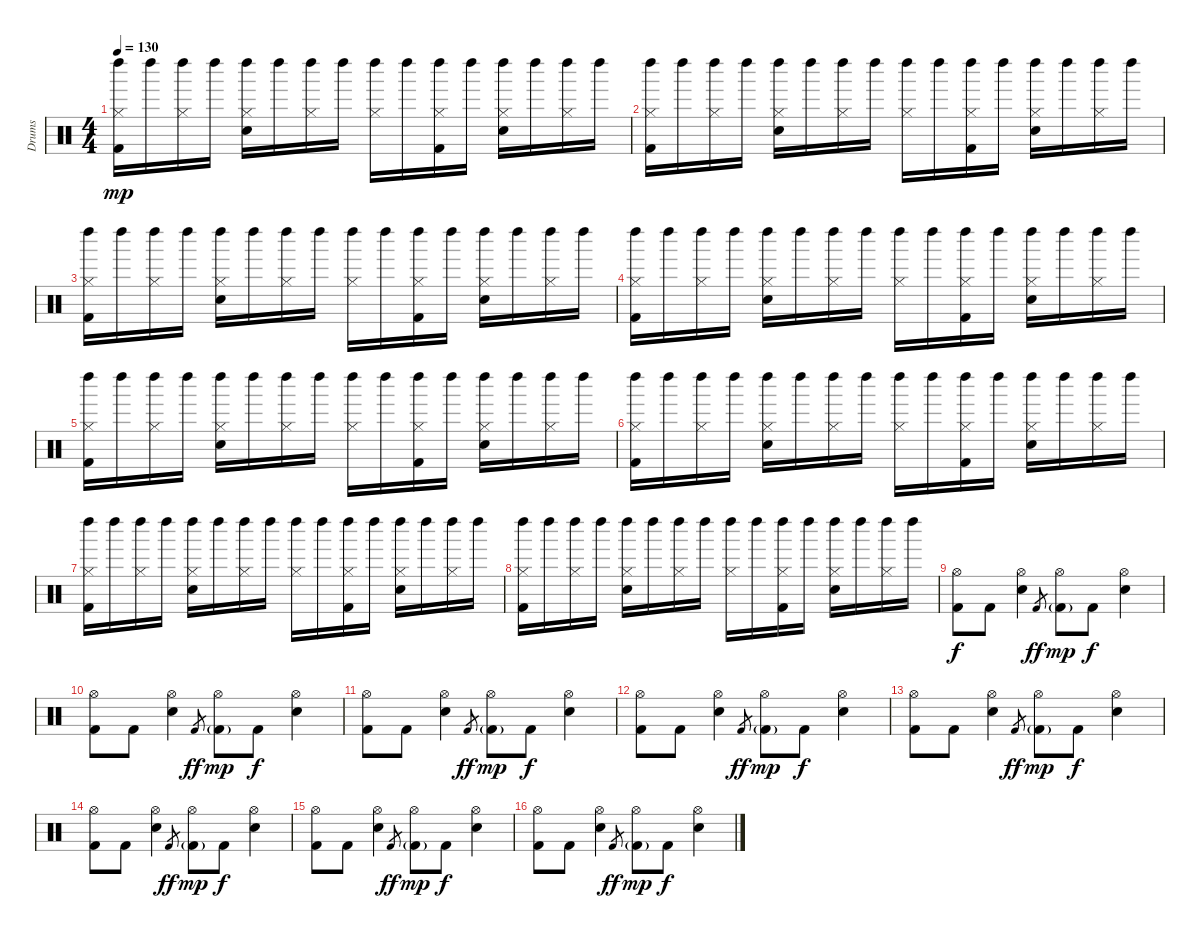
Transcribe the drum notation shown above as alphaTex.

\track ("Drums" "Drums") {instrument percussion}
\staff {score}
\articulation defaults
\ts (4 4)
\tempo 130
\clef neutral
\ks c
("Left Maraca (hit)" "Hi-Hat (closed)" "Kick (hit) 2").16{dy mp} "Left Maraca (hit)".16 ("Left Maraca (hit)" "Hi-Hat (closed)").16 "Left Maraca (hit)".16 ("Left Maraca (hit)" "Hi-Hat (closed)" "Electric Snare (hit)").16 "Left Maraca (hit)".16 ("Left Maraca (hit)" "Hi-Hat (closed)").16 "Left Maraca (hit)".16 ("Left Maraca (hit)" "Hi-Hat (closed)").16 "Left Maraca (hit)".16 ("Left Maraca (hit)" "Hi-Hat (closed)" "Kick (hit) 2").16 "Left Maraca (hit)".16 ("Left Maraca (hit)" "Hi-Hat (closed)" "Electric Snare (hit)").16 "Left Maraca (hit)".16 ("Left Maraca (hit)" "Hi-Hat (closed)").16 "Left Maraca (hit)".16 |
("Left Maraca (hit)" "Hi-Hat (closed)" "Kick (hit) 2").16 "Left Maraca (hit)".16 ("Left Maraca (hit)" "Hi-Hat (closed)").16 "Left Maraca (hit)".16 ("Left Maraca (hit)" "Hi-Hat (closed)" "Electric Snare (hit)").16 "Left Maraca (hit)".16 ("Left Maraca (hit)" "Hi-Hat (closed)").16 "Left Maraca (hit)".16 ("Left Maraca (hit)" "Hi-Hat (closed)").16 "Left Maraca (hit)".16 ("Left Maraca (hit)" "Hi-Hat (closed)" "Kick (hit) 2").16 "Left Maraca (hit)".16 ("Left Maraca (hit)" "Hi-Hat (closed)" "Electric Snare (hit)").16 "Left Maraca (hit)".16 ("Left Maraca (hit)" "Hi-Hat (closed)").16 "Left Maraca (hit)".16 |
("Left Maraca (hit)" "Hi-Hat (closed)" "Kick (hit) 2").16 "Left Maraca (hit)".16 ("Left Maraca (hit)" "Hi-Hat (closed)").16 "Left Maraca (hit)".16 ("Left Maraca (hit)" "Hi-Hat (closed)" "Electric Snare (hit)").16 "Left Maraca (hit)".16 ("Left Maraca (hit)" "Hi-Hat (closed)").16 "Left Maraca (hit)".16 ("Left Maraca (hit)" "Hi-Hat (closed)").16 "Left Maraca (hit)".16 ("Left Maraca (hit)" "Hi-Hat (closed)" "Kick (hit) 2").16 "Left Maraca (hit)".16 ("Left Maraca (hit)" "Hi-Hat (closed)" "Electric Snare (hit)").16 "Left Maraca (hit)".16 ("Left Maraca (hit)" "Hi-Hat (closed)").16 "Left Maraca (hit)".16 |
("Left Maraca (hit)" "Hi-Hat (closed)" "Kick (hit) 2").16 "Left Maraca (hit)".16 ("Left Maraca (hit)" "Hi-Hat (closed)").16 "Left Maraca (hit)".16 ("Left Maraca (hit)" "Hi-Hat (closed)" "Electric Snare (hit)").16 "Left Maraca (hit)".16 ("Left Maraca (hit)" "Hi-Hat (closed)").16 "Left Maraca (hit)".16 ("Left Maraca (hit)" "Hi-Hat (closed)").16 "Left Maraca (hit)".16 ("Left Maraca (hit)" "Hi-Hat (closed)" "Kick (hit) 2").16 "Left Maraca (hit)".16 ("Left Maraca (hit)" "Hi-Hat (closed)" "Electric Snare (hit)").16 "Left Maraca (hit)".16 ("Left Maraca (hit)" "Hi-Hat (closed)").16 "Left Maraca (hit)".16 |
("Left Maraca (hit)" "Hi-Hat (closed)" "Kick (hit) 2").16 "Left Maraca (hit)".16 ("Left Maraca (hit)" "Hi-Hat (closed)").16 "Left Maraca (hit)".16 ("Left Maraca (hit)" "Hi-Hat (closed)" "Electric Snare (hit)").16 "Left Maraca (hit)".16 ("Left Maraca (hit)" "Hi-Hat (closed)").16 "Left Maraca (hit)".16 ("Left Maraca (hit)" "Hi-Hat (closed)").16 "Left Maraca (hit)".16 ("Left Maraca (hit)" "Hi-Hat (closed)" "Kick (hit) 2").16 "Left Maraca (hit)".16 ("Left Maraca (hit)" "Hi-Hat (closed)" "Electric Snare (hit)").16 "Left Maraca (hit)".16 ("Left Maraca (hit)" "Hi-Hat (closed)").16 "Left Maraca (hit)".16 |
("Left Maraca (hit)" "Hi-Hat (closed)" "Kick (hit) 2").16 "Left Maraca (hit)".16 ("Left Maraca (hit)" "Hi-Hat (closed)").16 "Left Maraca (hit)".16 ("Left Maraca (hit)" "Hi-Hat (closed)" "Electric Snare (hit)").16 "Left Maraca (hit)".16 ("Left Maraca (hit)" "Hi-Hat (closed)").16 "Left Maraca (hit)".16 ("Left Maraca (hit)" "Hi-Hat (closed)").16 "Left Maraca (hit)".16 ("Left Maraca (hit)" "Hi-Hat (closed)" "Kick (hit) 2").16 "Left Maraca (hit)".16 ("Left Maraca (hit)" "Hi-Hat (closed)" "Electric Snare (hit)").16 "Left Maraca (hit)".16 ("Left Maraca (hit)" "Hi-Hat (closed)").16 "Left Maraca (hit)".16 |
("Left Maraca (hit)" "Hi-Hat (closed)" "Kick (hit) 2").16 "Left Maraca (hit)".16 ("Left Maraca (hit)" "Hi-Hat (closed)").16 "Left Maraca (hit)".16 ("Left Maraca (hit)" "Hi-Hat (closed)" "Electric Snare (hit)").16 "Left Maraca (hit)".16 ("Left Maraca (hit)" "Hi-Hat (closed)").16 "Left Maraca (hit)".16 ("Left Maraca (hit)" "Hi-Hat (closed)").16 "Left Maraca (hit)".16 ("Left Maraca (hit)" "Hi-Hat (closed)" "Kick (hit) 2").16 "Left Maraca (hit)".16 ("Left Maraca (hit)" "Hi-Hat (closed)" "Electric Snare (hit)").16 "Left Maraca (hit)".16 ("Left Maraca (hit)" "Hi-Hat (closed)").16 "Left Maraca (hit)".16 |
("Left Maraca (hit)" "Hi-Hat (closed)" "Kick (hit) 2").16 "Left Maraca (hit)".16 ("Left Maraca (hit)" "Hi-Hat (closed)").16 "Left Maraca (hit)".16 ("Left Maraca (hit)" "Hi-Hat (closed)" "Electric Snare (hit)").16 "Left Maraca (hit)".16 ("Left Maraca (hit)" "Hi-Hat (closed)").16 "Left Maraca (hit)".16 ("Left Maraca (hit)" "Hi-Hat (closed)").16 "Left Maraca (hit)".16 ("Left Maraca (hit)" "Hi-Hat (closed)" "Kick (hit) 2").16 "Left Maraca (hit)".16 ("Left Maraca (hit)" "Hi-Hat (closed)" "Electric Snare (hit)").16 "Left Maraca (hit)".16 ("Left Maraca (hit)" "Hi-Hat (closed)").16 "Left Maraca (hit)".16 |
("Hi-Hat (open)" "Kick (hit) 2").8{dy f} "Kick (hit) 2".8 ("Hi-Hat (open)" "Electric Snare (hit)").4 "Kick (hit) 2".8{gr dy ff} ("Hi-Hat (open)" "Kick (hit) 2"{g}).8{dy mp} "Kick (hit) 2".8{dy f} ("Hi-Hat (open)" "Electric Snare (hit)").4 |
("Hi-Hat (open)" "Kick (hit) 2").8 "Kick (hit) 2".8 ("Hi-Hat (open)" "Electric Snare (hit)").4 "Kick (hit) 2".8{gr dy ff} ("Hi-Hat (open)" "Kick (hit) 2"{g}).8{dy mp} "Kick (hit) 2".8{dy f} ("Hi-Hat (open)" "Electric Snare (hit)").4 |
("Hi-Hat (open)" "Kick (hit) 2").8 "Kick (hit) 2".8 ("Hi-Hat (open)" "Electric Snare (hit)").4 "Kick (hit) 2".8{gr dy ff} ("Hi-Hat (open)" "Kick (hit) 2"{g}).8{dy mp} "Kick (hit) 2".8{dy f} ("Hi-Hat (open)" "Electric Snare (hit)").4 |
("Hi-Hat (open)" "Kick (hit) 2").8 "Kick (hit) 2".8 ("Hi-Hat (open)" "Electric Snare (hit)").4 "Kick (hit) 2".8{gr dy ff} ("Hi-Hat (open)" "Kick (hit) 2"{g}).8{dy mp} "Kick (hit) 2".8{dy f} ("Hi-Hat (open)" "Electric Snare (hit)").4 |
("Hi-Hat (open)" "Kick (hit) 2").8 "Kick (hit) 2".8 ("Hi-Hat (open)" "Electric Snare (hit)").4 "Kick (hit) 2".8{gr dy ff} ("Hi-Hat (open)" "Kick (hit) 2"{g}).8{dy mp} "Kick (hit) 2".8{dy f} ("Hi-Hat (open)" "Electric Snare (hit)").4 |
("Hi-Hat (open)" "Kick (hit) 2").8 "Kick (hit) 2".8 ("Hi-Hat (open)" "Electric Snare (hit)").4 "Kick (hit) 2".8{gr dy ff} ("Hi-Hat (open)" "Kick (hit) 2"{g}).8{dy mp} "Kick (hit) 2".8{dy f} ("Hi-Hat (open)" "Electric Snare (hit)").4 |
("Hi-Hat (open)" "Kick (hit) 2").8 "Kick (hit) 2".8 ("Hi-Hat (open)" "Electric Snare (hit)").4 "Kick (hit) 2".8{gr dy ff} ("Hi-Hat (open)" "Kick (hit) 2"{g}).8{dy mp} "Kick (hit) 2".8{dy f} ("Hi-Hat (open)" "Electric Snare (hit)").4 |
("Hi-Hat (open)" "Kick (hit) 2").8 "Kick (hit) 2".8 ("Hi-Hat (open)" "Electric Snare (hit)").4 "Kick (hit) 2".8{gr dy ff} ("Hi-Hat (open)" "Kick (hit) 2"{g}).8{dy mp} "Kick (hit) 2".8{dy f} ("Hi-Hat (open)" "Electric Snare (hit)").4
